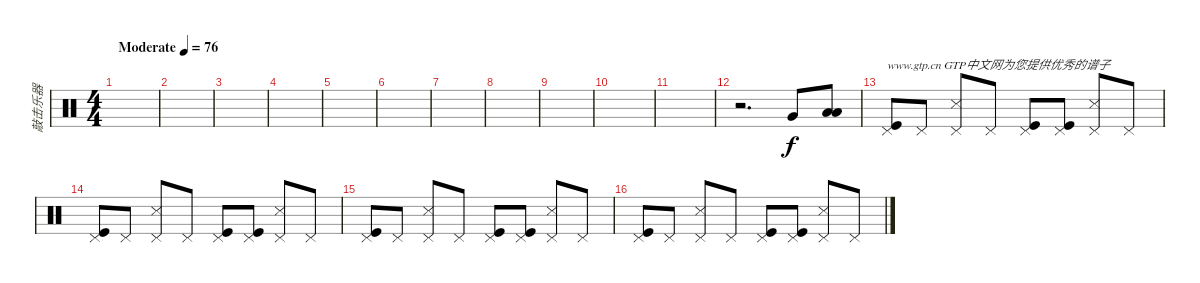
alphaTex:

\track ("敲击乐器" "敲击乐器") {instrument percussion}
\staff {score}
\articulation defaults
\ts (4 4)
\tempo (76 "Moderate")
\clef neutral
\ks c
|
|
|
|
|
|
|
|
|
|
|
r.2{d} "Very Low Tom (hit)".8 ("Low Floor Tom (hit)" "Low Floor Tom (hit)").8 |
("Kick (hit)" "Pedal Hi-Hat (hit)").8{txt "www.gtp.cn GTP中文网为您提供优秀的谱子"} "Pedal Hi-Hat (hit)".8 ("Snare (side stick) 3" "Pedal Hi-Hat (hit)").8 "Pedal Hi-Hat (hit)".8 ("Kick (hit)" "Pedal Hi-Hat (hit)").8 ("Kick (hit)" "Pedal Hi-Hat (hit)").8 ("Snare (side stick) 3" "Pedal Hi-Hat (hit)").8 "Pedal Hi-Hat (hit)".8 |
("Kick (hit)" "Pedal Hi-Hat (hit)").8 "Pedal Hi-Hat (hit)".8 ("Snare (side stick) 3" "Pedal Hi-Hat (hit)").8 "Pedal Hi-Hat (hit)".8 ("Kick (hit)" "Pedal Hi-Hat (hit)").8 ("Kick (hit)" "Pedal Hi-Hat (hit)").8 ("Snare (side stick) 3" "Pedal Hi-Hat (hit)").8 "Pedal Hi-Hat (hit)".8 |
("Kick (hit)" "Pedal Hi-Hat (hit)").8 "Pedal Hi-Hat (hit)".8 ("Snare (side stick) 3" "Pedal Hi-Hat (hit)").8 "Pedal Hi-Hat (hit)".8 ("Kick (hit)" "Pedal Hi-Hat (hit)").8 ("Kick (hit)" "Pedal Hi-Hat (hit)").8 ("Snare (side stick) 3" "Pedal Hi-Hat (hit)").8 "Pedal Hi-Hat (hit)".8 |
("Kick (hit)" "Pedal Hi-Hat (hit)").8 "Pedal Hi-Hat (hit)".8 ("Snare (side stick) 3" "Pedal Hi-Hat (hit)").8 "Pedal Hi-Hat (hit)".8 ("Kick (hit)" "Pedal Hi-Hat (hit)").8 ("Kick (hit)" "Pedal Hi-Hat (hit)").8 ("Snare (side stick) 3" "Pedal Hi-Hat (hit)").8 "Pedal Hi-Hat (hit)".8
